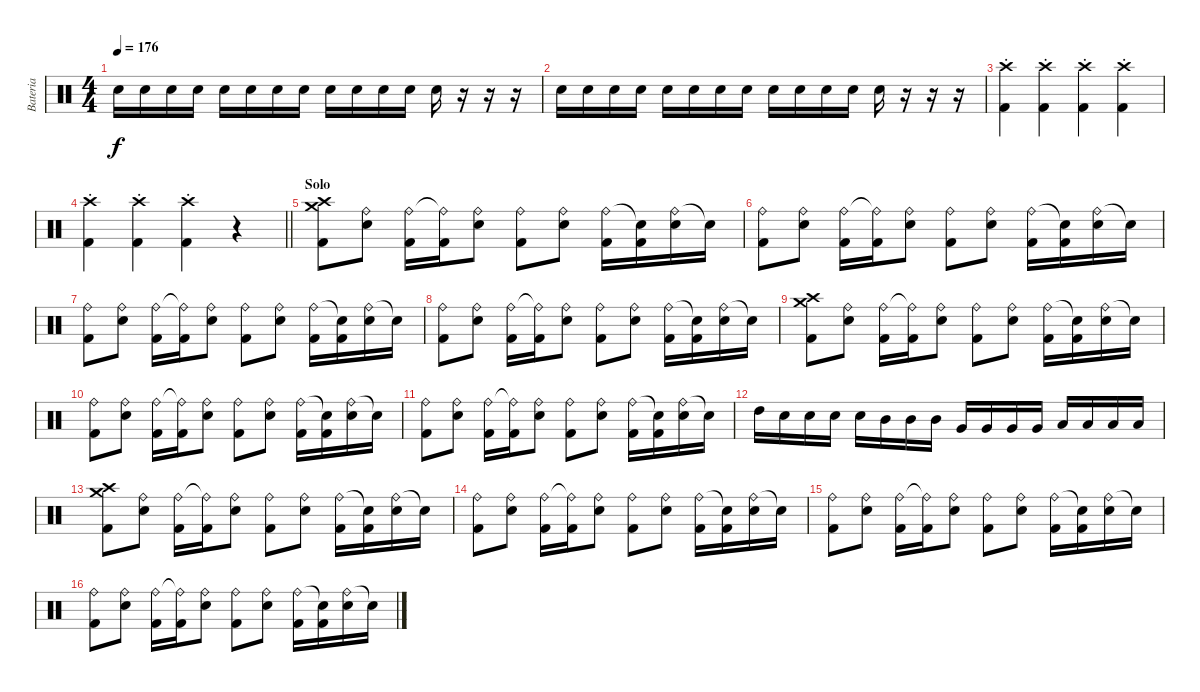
\track ("Bateria" "Bateria") {instrument percussion}
\staff {score}
\articulation defaults
\ts (4 4)
\tempo 176
\clef neutral
\ks c "Electric Snare (hit)".16{dy f} "Electric Snare (hit)".16 "Electric Snare (hit)".16 "Electric Snare (hit)".16 "Electric Snare (hit)".16 "Electric Snare (hit)".16 "Electric Snare (hit)".16 "Electric Snare (hit)".16 "Electric Snare (hit)".16 "Electric Snare (hit)".16 "Electric Snare (hit)".16 "Electric Snare (hit)".16 "Electric Snare (hit)".16
r.16 r.16 r.16 |
"Electric Snare (hit)".16 "Electric Snare (hit)".16 "Electric Snare (hit)".16 "Electric Snare (hit)".16 "Electric Snare (hit)".16 "Electric Snare (hit)".16 "Electric Snare (hit)".16 "Electric Snare (hit)".16 "Electric Snare (hit)".16 "Electric Snare (hit)".16 "Electric Snare (hit)".16 "Electric Snare (hit)".16 "Electric Snare (hit)".16 r.16 r.16 r.16 |
("Crash high (hit)"{st} "Kick (hit) 2").4 ("Crash high (hit)"{st} "Kick (hit) 2").4 ("Crash high (hit)"{st} "Kick (hit) 2").4 ("Crash high (hit)"{st} "Kick (hit) 2").4 |
\barLineRight lightlight
("Crash high (hit)"{st} "Kick (hit) 2").4 ("Crash high (hit)"{st} "Kick (hit) 2").4 ("Crash high (hit)"{st} "Kick (hit) 2").4 r.4 |
\section ("" "Solo")
("Crash medium (hit)" "Crash high (hit)" "Kick (hit) 2").8 ("Ride (bell)" "Electric Snare (hit)").8 ("Ride (bell)" "Kick (hit) 2").16 ("Ride (bell)"{t} "Kick (hit) 2").16 ("Ride (bell)" "Electric Snare (hit)").8 ("Ride (bell)" "Kick (hit) 2").8 ("Ride (bell)" "Electric Snare (hit)").8 ("Ride (bell)" "Kick (hit) 2").16 ("Snare (hit)"{t} "Kick (hit) 2").16 ("Ride (bell)" "Electric Snare (hit)").16 "Snare (hit)"{t}.16 |
("Ride (bell)" "Kick (hit) 2").8 ("Ride (bell)" "Electric Snare (hit)").8 ("Ride (bell)" "Kick (hit) 2").16 ("Ride (bell)"{t} "Kick (hit) 2").16 ("Ride (bell)" "Electric Snare (hit)").8 ("Ride (bell)" "Kick (hit) 2").8 ("Ride (bell)" "Electric Snare (hit)").8 ("Ride (bell)" "Kick (hit) 2").16 ("Snare (hit)"{t} "Kick (hit) 2").16 ("Ride (bell)" "Electric Snare (hit)").16 "Snare (hit)"{t}.16 |
("Ride (bell)" "Kick (hit) 2").8 ("Ride (bell)" "Electric Snare (hit)").8 ("Ride (bell)" "Kick (hit) 2").16 ("Ride (bell)"{t} "Kick (hit) 2").16 ("Ride (bell)" "Electric Snare (hit)").8 ("Ride (bell)" "Kick (hit) 2").8 ("Ride (bell)" "Electric Snare (hit)").8 ("Ride (bell)" "Kick (hit) 2").16 ("Snare (hit)"{t} "Kick (hit) 2").16 ("Ride (bell)" "Electric Snare (hit)").16 "Snare (hit)"{t}.16 |
("Ride (bell)" "Kick (hit) 2").8 ("Ride (bell)" "Electric Snare (hit)").8 ("Ride (bell)" "Kick (hit) 2").16 ("Ride (bell)"{t} "Kick (hit) 2").16 ("Ride (bell)" "Electric Snare (hit)").8 ("Ride (bell)" "Kick (hit) 2").8 ("Ride (bell)" "Electric Snare (hit)").8 ("Ride (bell)" "Kick (hit) 2").16 ("Snare (hit)"{t} "Kick (hit) 2").16 ("Ride (bell)" "Electric Snare (hit)").16 "Snare (hit)"{t}.16 |
("Crash medium (hit)" "Crash high (hit)" "Kick (hit) 2").8 ("Ride (bell)" "Electric Snare (hit)").8 ("Ride (bell)" "Kick (hit) 2").16 ("Ride (bell)"{t} "Kick (hit) 2").16 ("Ride (bell)" "Electric Snare (hit)").8 ("Ride (bell)" "Kick (hit) 2").8 ("Ride (bell)" "Electric Snare (hit)").8 ("Ride (bell)" "Kick (hit) 2").16 ("Snare (hit)"{t} "Kick (hit) 2").16 ("Ride (bell)" "Electric Snare (hit)").16 "Snare (hit)"{t}.16 |
("Ride (bell)" "Kick (hit) 2").8 ("Ride (bell)" "Electric Snare (hit)").8 ("Ride (bell)" "Kick (hit) 2").16 ("Ride (bell)"{t} "Kick (hit) 2").16 ("Ride (bell)" "Electric Snare (hit)").8 ("Ride (bell)" "Kick (hit) 2").8 ("Ride (bell)" "Electric Snare (hit)").8 ("Ride (bell)" "Kick (hit) 2").16 ("Snare (hit)"{t} "Kick (hit) 2").16 ("Ride (bell)" "Electric Snare (hit)").16 "Snare (hit)"{t}.16 |
("Ride (bell)" "Kick (hit) 2").8 ("Ride (bell)" "Electric Snare (hit)").8 ("Ride (bell)" "Kick (hit) 2").16 ("Ride (bell)"{t} "Kick (hit) 2").16 ("Ride (bell)" "Electric Snare (hit)").8 ("Ride (bell)" "Kick (hit) 2").8 ("Ride (bell)" "Electric Snare (hit)").8 ("Ride (bell)" "Kick (hit) 2").16 ("Snare (hit)"{t} "Kick (hit) 2").16 ("Ride (bell)" "Electric Snare (hit)").16 "Snare (hit)"{t}.16 |
"High Tom (hit)".16 "Electric Snare (hit)".16 "Electric Snare (hit)".16 "Electric Snare (hit)".16 "Electric Snare (hit)".16 "Mid Tom (hit)".16 "Mid Tom (hit)".16 "Mid Tom (hit)".16 "Very Low Tom (hit)".16 "Very Low Tom (hit)".16 "Very Low Tom (hit)".16 "Very Low Tom (hit)".16 "Low Floor Tom (hit)".16 "Low Floor Tom (hit)".16 "Low Floor Tom (hit)".16 "Low Floor Tom (hit)".16 |
("Crash medium (hit)" "Crash high (hit)" "Kick (hit) 2").8 ("Ride (bell)" "Electric Snare (hit)").8 ("Ride (bell)" "Kick (hit) 2").16 ("Ride (bell)"{t} "Kick (hit) 2").16 ("Ride (bell)" "Electric Snare (hit)").8 ("Ride (bell)" "Kick (hit) 2").8 ("Ride (bell)" "Electric Snare (hit)").8 ("Ride (bell)" "Kick (hit) 2").16 ("Snare (hit)"{t} "Kick (hit) 2").16 ("Ride (bell)" "Electric Snare (hit)").16 "Snare (hit)"{t}.16 |
("Ride (bell)" "Kick (hit) 2").8 ("Ride (bell)" "Electric Snare (hit)").8 ("Ride (bell)" "Kick (hit) 2").16 ("Ride (bell)"{t} "Kick (hit) 2").16 ("Ride (bell)" "Electric Snare (hit)").8 ("Ride (bell)" "Kick (hit) 2").8 ("Ride (bell)" "Electric Snare (hit)").8 ("Ride (bell)" "Kick (hit) 2").16 ("Snare (hit)"{t} "Kick (hit) 2").16 ("Ride (bell)" "Electric Snare (hit)").16 "Snare (hit)"{t}.16 |
("Ride (bell)" "Kick (hit) 2").8 ("Ride (bell)" "Electric Snare (hit)").8 ("Ride (bell)" "Kick (hit) 2").16 ("Ride (bell)"{t} "Kick (hit) 2").16 ("Ride (bell)" "Electric Snare (hit)").8 ("Ride (bell)" "Kick (hit) 2").8 ("Ride (bell)" "Electric Snare (hit)").8 ("Ride (bell)" "Kick (hit) 2").16 ("Snare (hit)"{t} "Kick (hit) 2").16 ("Ride (bell)" "Electric Snare (hit)").16 "Snare (hit)"{t}.16 |
("Ride (bell)" "Kick (hit) 2").8 ("Ride (bell)" "Electric Snare (hit)").8 ("Ride (bell)" "Kick (hit) 2").16 ("Ride (bell)"{t} "Kick (hit) 2").16 ("Ride (bell)" "Electric Snare (hit)").8 ("Ride (bell)" "Kick (hit) 2").8 ("Ride (bell)" "Electric Snare (hit)").8 ("Ride (bell)" "Kick (hit) 2").16 ("Snare (hit)"{t} "Kick (hit) 2").16 ("Ride (bell)" "Electric Snare (hit)").16 "Snare (hit)"{t}.16
